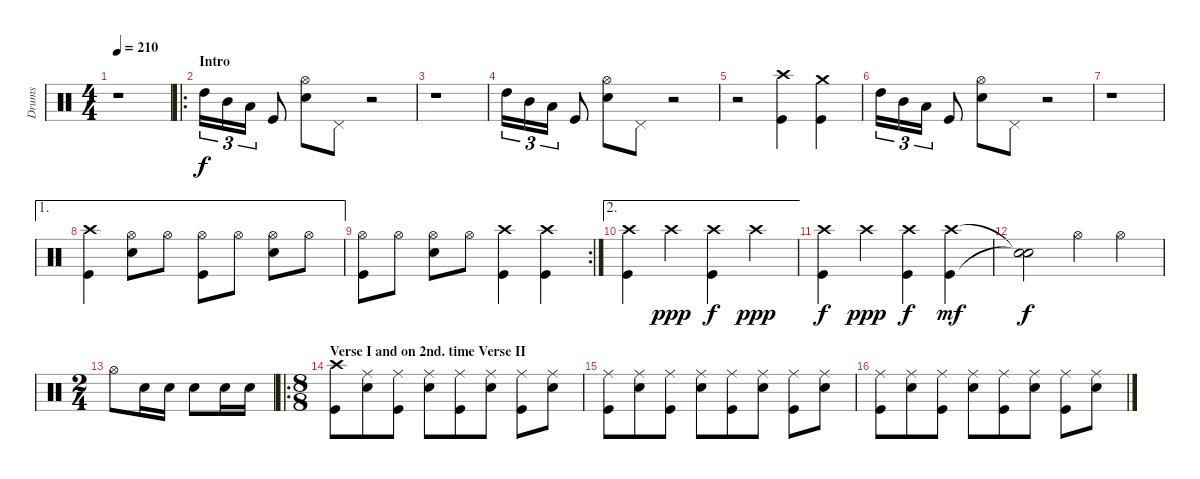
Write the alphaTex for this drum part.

\track ("Drums" "Drums") {instrument percussion}
\staff {score}
\articulation defaults
\ts (4 4)
\tempo 210
\clef neutral
\ks c
r.1{dy f} |
\ro
\section ("" "Intro")
"High Tom (hit)".16{tu (3 2)} "Mid Tom (hit)".16{tu (3 2)} "Low Tom (hit)".16{tu (3 2)} "Kick (hit)".8 ("Hi-Hat (open)" "Electric Snare (hit)").8 "Pedal Hi-Hat (hit)".8 r.2 |
r.1 |
"High Tom (hit)".16{tu (3 2)} "Mid Tom (hit)".16{tu (3 2)} "Low Tom (hit)".16{tu (3 2)} "Kick (hit)".8 ("Hi-Hat (open)" "Electric Snare (hit)").8 "Pedal Hi-Hat (hit)".8 r.2 |
r.2 ("Crash high (hit)" "Kick (hit)").4 ("Crash medium (hit)" "Kick (hit)").4 |
"High Tom (hit)".16{tu (3 2)} "Mid Tom (hit)".16{tu (3 2)} "Low Tom (hit)".16{tu (3 2)} "Kick (hit)".8 ("Hi-Hat (open)" "Electric Snare (hit)").8 "Pedal Hi-Hat (hit)".8 r.2 |
r.1 |
\ae 1
("Crash high (hit)" "Kick (hit)").4 ("Hi-Hat (open)" "Electric Snare (hit)").8 "Hi-Hat (open)".8 ("Hi-Hat (open)" "Kick (hit)").8 "Hi-Hat (open)".8 ("Hi-Hat (open)" "Electric Snare (hit)").8 "Hi-Hat (open)".8 |
\rc 2
("Hi-Hat (open)" "Kick (hit)").8 "Hi-Hat (open)".8 ("Hi-Hat (open)" "Electric Snare (hit)").8 "Hi-Hat (open)".8 ("Crash high (hit)" "Kick (hit)").4 ("Crash high (hit)" "Kick (hit)").4 |
\ae 2
("Crash high (hit)" "Kick (hit)").4 "Crash high (hit)".4{dy ppp} ("Crash high (hit)" "Kick (hit)").4{dy f} "Crash high (hit)".4{dy ppp} |
("Crash high (hit)" "Kick (hit)").4{dy f} "Crash high (hit)".4{dy ppp} ("Crash high (hit)" "Kick (hit)").4{dy f} ("Crash high (hit)" "Kick (hit)").4{dy mf} |
("Snare (hit)"{t} "Snare (hit)"{t}).2{dy f} "Hi-Hat (open)".4 "Hi-Hat (open)".4 |
\ts (2 4)
"Hi-Hat (open)".8 "Electric Snare (hit)".16 "Electric Snare (hit)".16 "Electric Snare (hit)".8 "Electric Snare (hit)".16 "Electric Snare (hit)".16 |
\ro
\ts (8 8)
\section ("" "Verse I and on 2nd. time Verse II")
("Crash high (hit)" "Kick (hit)").8 ("Ride (middle)" "Electric Snare (hit)").8 ("Ride (middle)" "Kick (hit)").8 ("Ride (middle)" "Electric Snare (hit)").8 ("Ride (middle)" "Kick (hit)").8 ("Ride (middle)" "Electric Snare (hit)").8 ("Ride (middle)" "Kick (hit)").8 ("Ride (middle)" "Electric Snare (hit)").8 |
("Ride (middle)" "Kick (hit)").8 ("Ride (middle)" "Electric Snare (hit)").8 ("Ride (middle)" "Kick (hit)").8 ("Ride (middle)" "Electric Snare (hit)").8 ("Ride (middle)" "Kick (hit)").8 ("Ride (middle)" "Electric Snare (hit)").8 ("Ride (middle)" "Kick (hit)").8 ("Ride (middle)" "Electric Snare (hit)").8 |
("Ride (middle)" "Kick (hit)").8 ("Ride (middle)" "Electric Snare (hit)").8 ("Ride (middle)" "Kick (hit)").8 ("Ride (middle)" "Electric Snare (hit)").8 ("Ride (middle)" "Kick (hit)").8 ("Ride (middle)" "Electric Snare (hit)").8 ("Ride (middle)" "Kick (hit)").8 ("Ride (middle)" "Electric Snare (hit)").8
